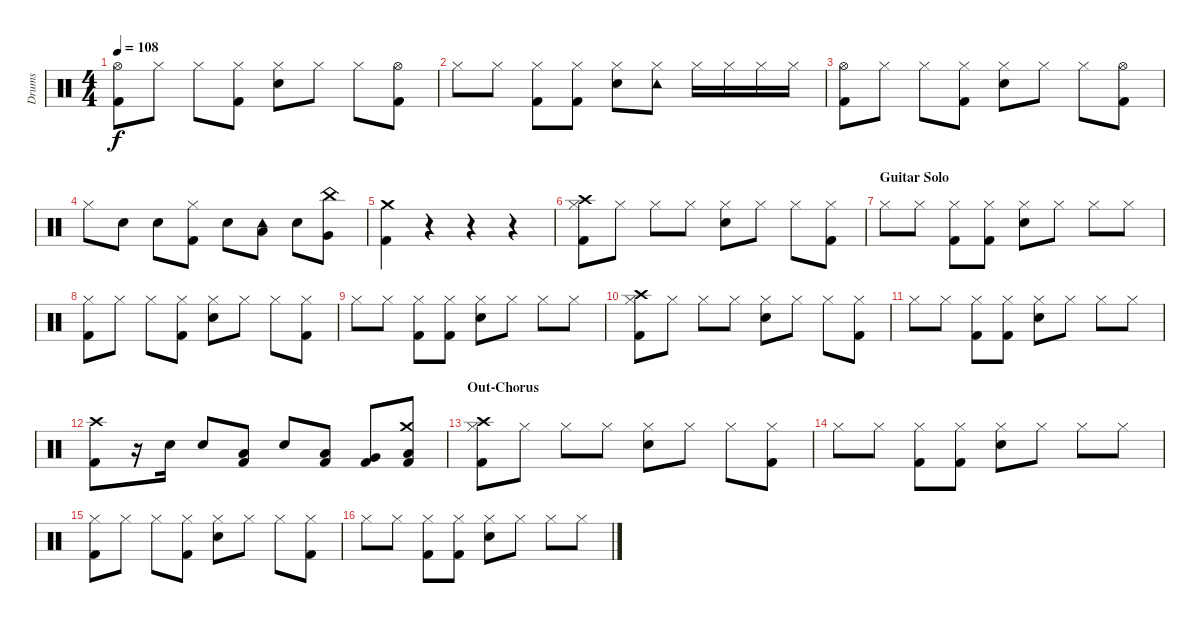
\track ("Drums" "Drums") {instrument percussion}
\staff {score}
\articulation defaults
\ts (4 4)
\tempo 108
\clef neutral
\ks c
("Kick (hit) 2" "Hi-Hat (open)").8{dy f} "Hi-Hat (closed)".8 "Hi-Hat (closed)".8 ("Kick (hit) 2" "Hi-Hat (closed)").8 ("Electric Snare (hit)" "Hi-Hat (closed)").8 "Hi-Hat (closed)".8 "Hi-Hat (closed)".8 ("Kick (hit) 2" "Hi-Hat (open)").8 |
"Hi-Hat (closed)".8 "Hi-Hat (closed)".8 ("Kick (hit) 2" "Hi-Hat (closed)").8 ("Kick (hit) 2" "Hi-Hat (closed)").8 ("Electric Snare (hit)" "Hi-Hat (closed)").8 ("Hi-Hat (closed)" "Tambourine (hit)").8 "Hi-Hat (closed)".16 "Hi-Hat (closed)".16 "Hi-Hat (closed)".16 "Hi-Hat (closed)".16 |
("Kick (hit) 2" "Hi-Hat (open)").8 "Hi-Hat (closed)".8 "Hi-Hat (closed)".8 ("Kick (hit) 2" "Hi-Hat (closed)").8 ("Electric Snare (hit)" "Hi-Hat (closed)").8 "Hi-Hat (closed)".8 "Hi-Hat (closed)".8 ("Kick (hit) 2" "Hi-Hat (open)").8 |
"Hi-Hat (closed)".8 "Electric Snare (hit)".8 "Electric Snare (hit)".8 ("Kick (hit) 2" "Hi-Hat (closed)").8 "Electric Snare (hit)".8 ("Low Tom (hit)" "Tambourine (hit)").8 "Electric Snare (hit)".8 ("Very Low Tom (hit)" "China (hit)").8 |
("Kick (hit) 2" "Crash medium (hit)").4 r.4 r.4 r.4 |
("Kick (hit) 2" "Hi-Hat (closed)" "Crash high (hit)").8 "Hi-Hat (closed)".8 "Hi-Hat (closed)".8 "Hi-Hat (closed)".8 ("Electric Snare (hit)" "Hi-Hat (closed)").8 "Hi-Hat (closed)".8 "Hi-Hat (closed)".8 ("Kick (hit) 2" "Hi-Hat (closed)").8 |
\section ("" "Guitar Solo")
"Hi-Hat (closed)".8 "Hi-Hat (closed)".8 ("Kick (hit) 2" "Hi-Hat (closed)").8 ("Kick (hit) 2" "Hi-Hat (closed)").8 ("Electric Snare (hit)" "Hi-Hat (closed)").8 "Hi-Hat (closed)".8 "Hi-Hat (closed)".8 "Hi-Hat (closed)".8 |
("Kick (hit) 2" "Hi-Hat (closed)").8 "Hi-Hat (closed)".8 "Hi-Hat (closed)".8 ("Kick (hit) 2" "Hi-Hat (closed)").8 ("Electric Snare (hit)" "Hi-Hat (closed)").8 "Hi-Hat (closed)".8 "Hi-Hat (closed)".8 ("Kick (hit) 2" "Hi-Hat (closed)").8 |
"Hi-Hat (closed)".8 "Hi-Hat (closed)".8 ("Kick (hit) 2" "Hi-Hat (closed)").8 ("Kick (hit) 2" "Hi-Hat (closed)").8 ("Electric Snare (hit)" "Hi-Hat (closed)").8 "Hi-Hat (closed)".8 "Hi-Hat (closed)".8 "Hi-Hat (closed)".8 |
("Kick (hit) 2" "Hi-Hat (closed)" "Crash high (hit)").8 "Hi-Hat (closed)".8 "Hi-Hat (closed)".8 "Hi-Hat (closed)".8 ("Electric Snare (hit)" "Hi-Hat (closed)").8 "Hi-Hat (closed)".8 "Hi-Hat (closed)".8 ("Kick (hit) 2" "Hi-Hat (closed)").8 |
"Hi-Hat (closed)".8 "Hi-Hat (closed)".8 ("Kick (hit) 2" "Hi-Hat (closed)").8 ("Kick (hit) 2" "Hi-Hat (closed)").8 ("Electric Snare (hit)" "Hi-Hat (closed)").8 "Hi-Hat (closed)".8 "Hi-Hat (closed)".8 "Hi-Hat (closed)".8 |
("Kick (hit) 2" "Crash high (hit)").8 r.16 "Electric Snare (hit)".16 "Electric Snare (hit)".8 ("Kick (hit) 2" "Low Tom (hit)").8 "Electric Snare (hit)".8 ("Kick (hit) 2" "Low Tom (hit)").8 ("Kick (hit) 2" "Very Low Tom (hit)").8 ("Kick (hit) 2" "Low Floor Tom (hit)" "Crash medium (hit)").8 |
\section ("" "Out-Chorus")
("Kick (hit) 2" "Hi-Hat (closed)" "Crash high (hit)").8 "Hi-Hat (closed)".8 "Hi-Hat (closed)".8 "Hi-Hat (closed)".8 ("Electric Snare (hit)" "Hi-Hat (closed)").8 "Hi-Hat (closed)".8 "Hi-Hat (closed)".8 ("Kick (hit) 2" "Hi-Hat (closed)").8 |
"Hi-Hat (closed)".8 "Hi-Hat (closed)".8 ("Kick (hit) 2" "Hi-Hat (closed)").8 ("Kick (hit) 2" "Hi-Hat (closed)").8 ("Electric Snare (hit)" "Hi-Hat (closed)").8 "Hi-Hat (closed)".8 "Hi-Hat (closed)".8 "Hi-Hat (closed)".8 |
("Kick (hit) 2" "Hi-Hat (closed)").8 "Hi-Hat (closed)".8 "Hi-Hat (closed)".8 ("Kick (hit) 2" "Hi-Hat (closed)").8 ("Electric Snare (hit)" "Hi-Hat (closed)").8 "Hi-Hat (closed)".8 "Hi-Hat (closed)".8 ("Kick (hit) 2" "Hi-Hat (closed)").8 |
"Hi-Hat (closed)".8 "Hi-Hat (closed)".8 ("Kick (hit) 2" "Hi-Hat (closed)").8 ("Kick (hit) 2" "Hi-Hat (closed)").8 ("Electric Snare (hit)" "Hi-Hat (closed)").8 "Hi-Hat (closed)".8 "Hi-Hat (closed)".8 "Hi-Hat (closed)".8
